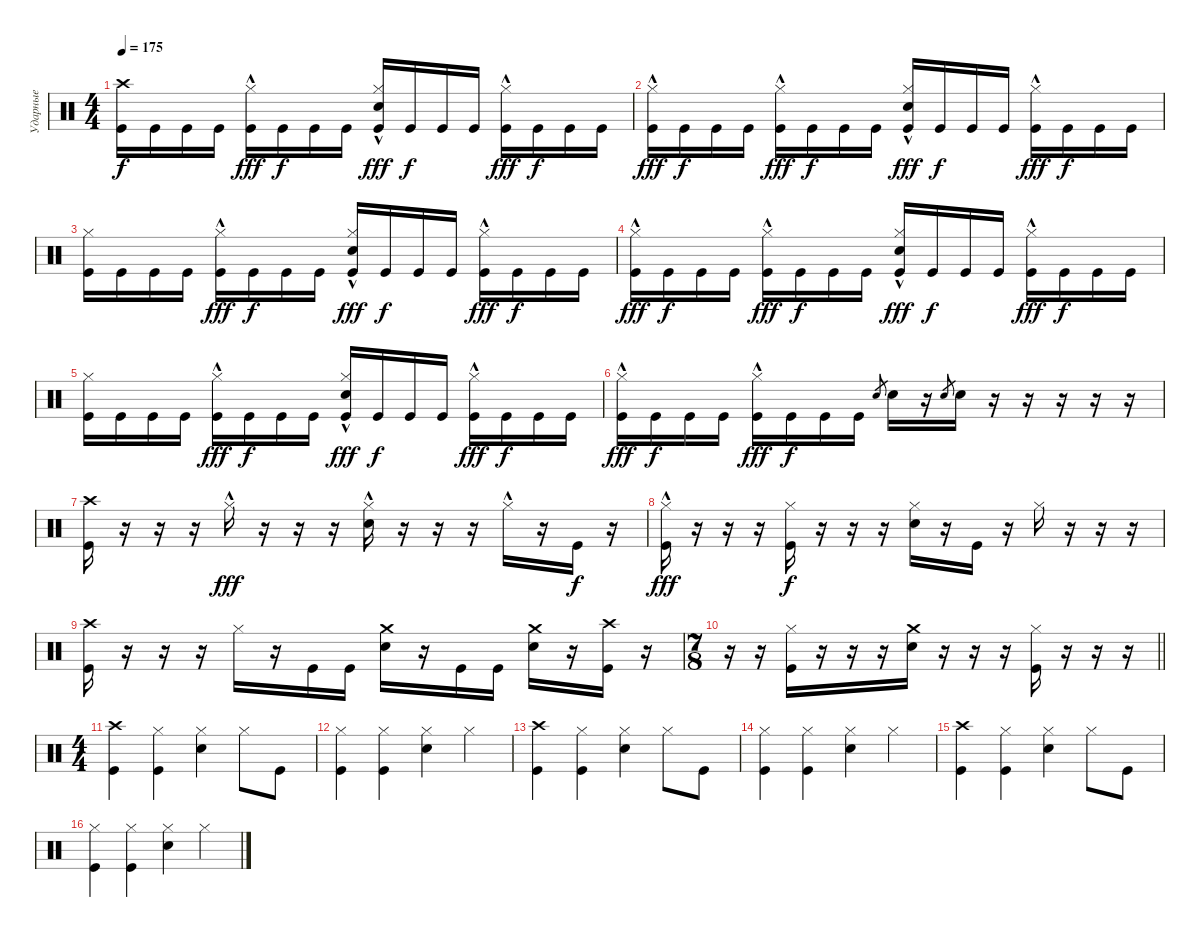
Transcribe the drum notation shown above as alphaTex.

\track ("Ударные" "Ударные") {instrument percussion}
\staff {score}
\articulation defaults
\ts (4 4)
\tempo 175
\clef neutral
\ks c
("Crash high (hit)" "Kick (hit)").16{dy f} "Kick (hit)".16 "Kick (hit)".16 "Kick (hit)".16 ("Hi-Hat (closed)"{hac} "Kick (hit)").16{dy fff} "Kick (hit)".16{dy f} "Kick (hit)".16 "Kick (hit)".16 ("Hi-Hat (closed)"{hac} "Electric Snare (hit)" "Kick (hit)").16{dy fff} "Kick (hit)".16{dy f} "Kick (hit)".16 "Kick (hit)".16 ("Hi-Hat (closed)"{hac} "Kick (hit)").16{dy fff} "Kick (hit)".16{dy f} "Kick (hit)".16 "Kick (hit)".16 |
("Hi-Hat (closed)"{hac} "Kick (hit)").16{dy fff} "Kick (hit)".16{dy f} "Kick (hit)".16 "Kick (hit)".16 ("Hi-Hat (closed)"{hac} "Kick (hit)").16{dy fff} "Kick (hit)".16{dy f} "Kick (hit)".16 "Kick (hit)".16 ("Electric Snare (hit)" "Hi-Hat (closed)"{hac} "Kick (hit)").16{dy fff} "Kick (hit)".16{dy f} "Kick (hit)".16 "Kick (hit)".16 ("Hi-Hat (closed)"{hac} "Kick (hit)").16{dy fff} "Kick (hit)".16{dy f} "Kick (hit)".16 "Kick (hit)".16 |
("Hi-Hat (closed)" "Kick (hit)").16 "Kick (hit)".16 "Kick (hit)".16 "Kick (hit)".16 ("Hi-Hat (closed)"{hac} "Kick (hit)").16{dy fff} "Kick (hit)".16{dy f} "Kick (hit)".16 "Kick (hit)".16 ("Hi-Hat (closed)"{hac} "Electric Snare (hit)" "Kick (hit)").16{dy fff} "Kick (hit)".16{dy f} "Kick (hit)".16 "Kick (hit)".16 ("Hi-Hat (closed)"{hac} "Kick (hit)").16{dy fff} "Kick (hit)".16{dy f} "Kick (hit)".16 "Kick (hit)".16 |
("Hi-Hat (closed)"{hac} "Kick (hit)").16{dy fff} "Kick (hit)".16{dy f} "Kick (hit)".16 "Kick (hit)".16 ("Hi-Hat (closed)"{hac} "Kick (hit)").16{dy fff} "Kick (hit)".16{dy f} "Kick (hit)".16 "Kick (hit)".16 ("Electric Snare (hit)" "Hi-Hat (closed)"{hac} "Kick (hit)").16{dy fff} "Kick (hit)".16{dy f} "Kick (hit)".16 "Kick (hit)".16 ("Hi-Hat (closed)"{hac} "Kick (hit)").16{dy fff} "Kick (hit)".16{dy f} "Kick (hit)".16 "Kick (hit)".16 |
("Hi-Hat (closed)" "Kick (hit)").16 "Kick (hit)".16 "Kick (hit)".16 "Kick (hit)".16 ("Hi-Hat (closed)"{hac} "Kick (hit)").16{dy fff} "Kick (hit)".16{dy f} "Kick (hit)".16 "Kick (hit)".16 ("Hi-Hat (closed)"{hac} "Electric Snare (hit)" "Kick (hit)").16{dy fff} "Kick (hit)".16{dy f} "Kick (hit)".16 "Kick (hit)".16 ("Hi-Hat (closed)"{hac} "Kick (hit)").16{dy fff} "Kick (hit)".16{dy f} "Kick (hit)".16 "Kick (hit)".16 |
("Hi-Hat (closed)"{hac} "Kick (hit)").16{dy fff} "Kick (hit)".16{dy f} "Kick (hit)".16 "Kick (hit)".16 ("Hi-Hat (closed)"{hac} "Kick (hit)").16{dy fff} "Kick (hit)".16{dy f} "Kick (hit)".16 "Kick (hit)".16 "Electric Snare (hit)".8{gr} "Electric Snare (hit)".16 r.16 "Electric Snare (hit)".8{gr} "Electric Snare (hit)".16 r.16 r.16 r.16 r.16 r.16 |
("Crash high (hit)" "Kick (hit)").16 r.16 r.16 r.16 "Hi-Hat (closed)"{hac}.16{dy fff} r.16 r.16 r.16 ("Hi-Hat (closed)"{hac} "Electric Snare (hit)").16 r.16 r.16 r.16 "Hi-Hat (closed)"{hac}.16 r.16 "Kick (hit)".16{dy f} r.16 |
("Hi-Hat (closed)"{hac} "Kick (hit)").16{dy fff} r.16 r.16 r.16 ("Hi-Hat (closed)" "Kick (hit)").16{dy f} r.16 r.16 r.16 ("Hi-Hat (closed)" "Electric Snare (hit)").16 r.16 "Kick (hit)".16 r.16 "Hi-Hat (closed)".16 r.16 r.16 r.16 |
("Crash high (hit)" "Kick (hit)").16 r.16 r.16 r.16 "Hi-Hat (closed)".16 r.16 "Kick (hit)".16 "Kick (hit)".16 ("Crash medium (hit)" "Electric Snare (hit)").16 r.16 "Kick (hit)".16 "Kick (hit)".16 ("Crash medium (hit)" "Electric Snare (hit)").16 r.16 ("Crash high (hit)" "Kick (hit)").16 r.16 |
\ts (7 8)
\barLineRight lightlight
r.16 r.16 ("Hi-Hat (closed)" "Kick (hit)").16 r.16 r.16 r.16 ("Crash medium (hit)" "Electric Snare (hit)").16 r.16 r.16 r.16 ("Hi-Hat (closed)" "Kick (hit)").16 r.16 r.16 r.16 |
\ts (4 4)
("Crash high (hit)" "Kick (hit)").4 ("Hi-Hat (closed)" "Kick (hit)").4 ("Hi-Hat (closed)" "Electric Snare (hit)").4 "Hi-Hat (closed)".8 "Kick (hit)".8 |
("Kick (hit)" "Hi-Hat (closed)").4 ("Hi-Hat (closed)" "Kick (hit)").4 ("Hi-Hat (closed)" "Electric Snare (hit)").4 "Hi-Hat (closed)".4 |
("Crash high (hit)" "Kick (hit)").4 ("Hi-Hat (closed)" "Kick (hit)").4 ("Hi-Hat (closed)" "Electric Snare (hit)").4 "Hi-Hat (closed)".8 "Kick (hit)".8 |
("Kick (hit)" "Hi-Hat (closed)").4 ("Hi-Hat (closed)" "Kick (hit)").4 ("Hi-Hat (closed)" "Electric Snare (hit)").4 "Hi-Hat (closed)".4 |
("Crash high (hit)" "Kick (hit)").4 ("Hi-Hat (closed)" "Kick (hit)").4 ("Hi-Hat (closed)" "Electric Snare (hit)").4 "Hi-Hat (closed)".8 "Kick (hit)".8 |
("Kick (hit)" "Hi-Hat (closed)").4 ("Hi-Hat (closed)" "Kick (hit)").4 ("Hi-Hat (closed)" "Electric Snare (hit)").4 "Hi-Hat (closed)".4
